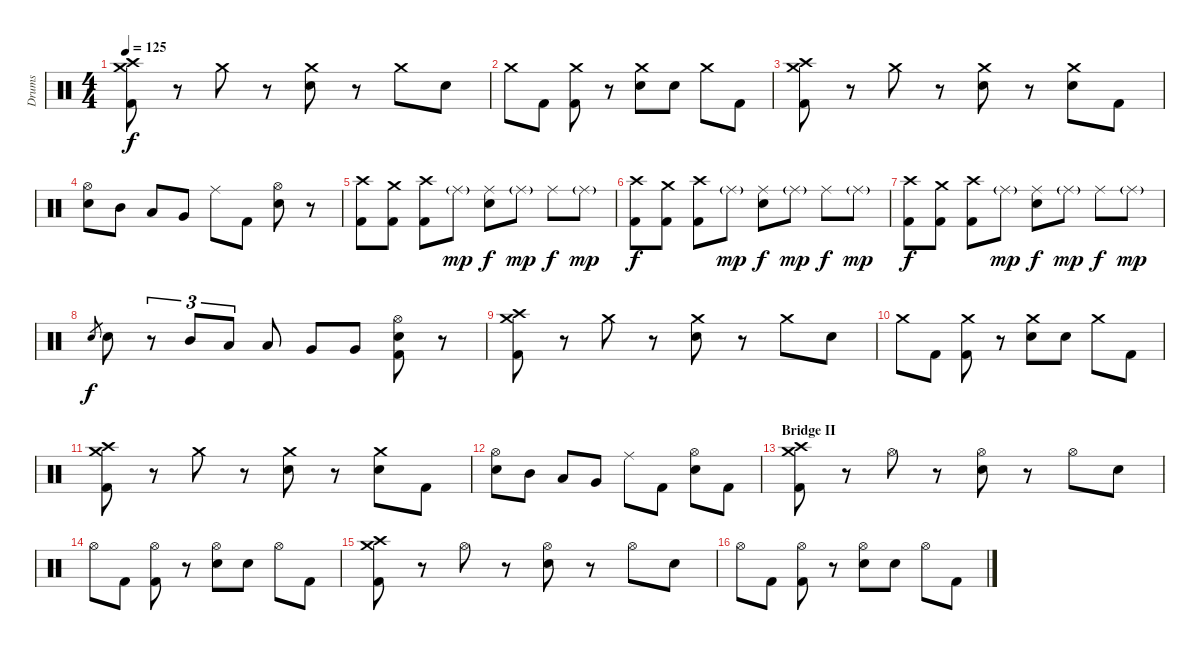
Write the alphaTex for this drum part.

\track ("Drums" "Drums") {instrument percussion}
\staff {score}
\articulation defaults
\ts (4 4)
\tempo 125
\clef neutral
\ks c
("Crash medium (hit)" "Crash high (hit)" "Kick (hit) 2").8{dy f} r.8 "Crash medium (hit)".8 r.8 ("Crash medium (hit)" "Electric Snare (hit)").8 r.8 "Crash medium (hit)".8 "Electric Snare (hit)".8 |
"Crash medium (hit)".8 "Kick (hit) 2".8 ("Crash medium (hit)" "Kick (hit) 2").8 r.8 ("Crash medium (hit)" "Electric Snare (hit)").8 "Electric Snare (hit)".8 "Crash medium (hit)".8 "Kick (hit) 2".8 |
("Crash medium (hit)" "Crash high (hit)" "Kick (hit) 2").8 r.8 "Crash medium (hit)".8 r.8 ("Crash medium (hit)" "Electric Snare (hit)").8 r.8 ("Crash medium (hit)" "Electric Snare (hit)").8 "Kick (hit) 2".8 |
("Hi-Hat (open)" "Electric Snare (hit)").8 "Mid Tom (hit)".8 "Low Tom (hit)".8 "Very Low Tom (hit)".8 "Ride (middle)".8 "Kick (hit) 2".8 ("Hi-Hat (open)" "Electric Snare (hit)").8 r.8 |
("Crash high (hit)" "Kick (hit) 2").8 ("Crash medium (hit)" "Kick (hit) 2").8 ("Crash high (hit)" "Kick (hit) 2").8 "Ride (middle)"{g}.8{dy mp} ("Ride (middle)" "Electric Snare (hit)").8{dy f} "Ride (middle)"{g}.8{dy mp} "Ride (middle)".8{dy f} "Ride (middle)"{g}.8{dy mp} |
("Crash high (hit)" "Kick (hit) 2").8{dy f} ("Crash medium (hit)" "Kick (hit) 2").8 ("Crash high (hit)" "Kick (hit) 2").8 "Ride (middle)"{g}.8{dy mp} ("Ride (middle)" "Electric Snare (hit)").8{dy f} "Ride (middle)"{g}.8{dy mp} "Ride (middle)".8{dy f} "Ride (middle)"{g}.8{dy mp} |
("Crash high (hit)" "Kick (hit) 2").8{dy f} ("Crash medium (hit)" "Kick (hit) 2").8 ("Crash high (hit)" "Kick (hit) 2").8 "Ride (middle)"{g}.8{dy mp} ("Ride (middle)" "Electric Snare (hit)").8{dy f} "Ride (middle)"{g}.8{dy mp} "Ride (middle)".8{dy f} "Ride (middle)"{g}.8{dy mp} |
"Electric Snare (hit)".8{gr dy f} "Electric Snare (hit)".8 r.8{tu (3 2)} "Mid Tom (hit)".8{tu (3 2)} "Low Tom (hit)".8{tu (3 2)} "Low Tom (hit)".8 "Very Low Tom (hit)".8 "Very Low Tom (hit)".8 ("Hi-Hat (open)" "Electric Snare (hit)" "Kick (hit) 2").8 r.8 |
("Crash medium (hit)" "Crash high (hit)" "Kick (hit) 2").8 r.8 "Crash medium (hit)".8 r.8 ("Crash medium (hit)" "Electric Snare (hit)").8 r.8 "Crash medium (hit)".8 "Electric Snare (hit)".8 |
"Crash medium (hit)".8 "Kick (hit) 2".8 ("Crash medium (hit)" "Kick (hit) 2").8 r.8 ("Crash medium (hit)" "Electric Snare (hit)").8 "Electric Snare (hit)".8 "Crash medium (hit)".8 "Kick (hit) 2".8 |
("Crash medium (hit)" "Crash high (hit)" "Kick (hit) 2").8 r.8 "Crash medium (hit)".8 r.8 ("Crash medium (hit)" "Electric Snare (hit)").8 r.8 ("Crash medium (hit)" "Electric Snare (hit)").8 "Kick (hit) 2".8 |
("Hi-Hat (open)" "Electric Snare (hit)").8 "Mid Tom (hit)".8 "Low Tom (hit)".8 "Very Low Tom (hit)".8 "Ride (middle)".8 "Kick (hit) 2".8 ("Hi-Hat (open)" "Electric Snare (hit)").8 "Kick (hit) 2".8 |
\section ("" "Bridge II")
("Crash medium (hit)" "Crash high (hit)" "Kick (hit) 2").8 r.8 "Hi-Hat (open)".8 r.8 ("Hi-Hat (open)" "Electric Snare (hit)").8 r.8 "Hi-Hat (open)".8 "Electric Snare (hit)".8 |
"Hi-Hat (open)".8 "Kick (hit) 2".8 ("Hi-Hat (open)" "Kick (hit) 2").8 r.8 ("Hi-Hat (open)" "Electric Snare (hit)").8 "Electric Snare (hit)".8 "Hi-Hat (open)".8 "Kick (hit) 2".8 |
("Crash medium (hit)" "Crash high (hit)" "Kick (hit) 2").8 r.8 "Hi-Hat (open)".8 r.8 ("Hi-Hat (open)" "Electric Snare (hit)").8 r.8 "Hi-Hat (open)".8 "Electric Snare (hit)".8 |
"Hi-Hat (open)".8 "Kick (hit) 2".8 ("Hi-Hat (open)" "Kick (hit) 2").8 r.8 ("Hi-Hat (open)" "Electric Snare (hit)").8 "Electric Snare (hit)".8 "Hi-Hat (open)".8 "Kick (hit) 2".8
